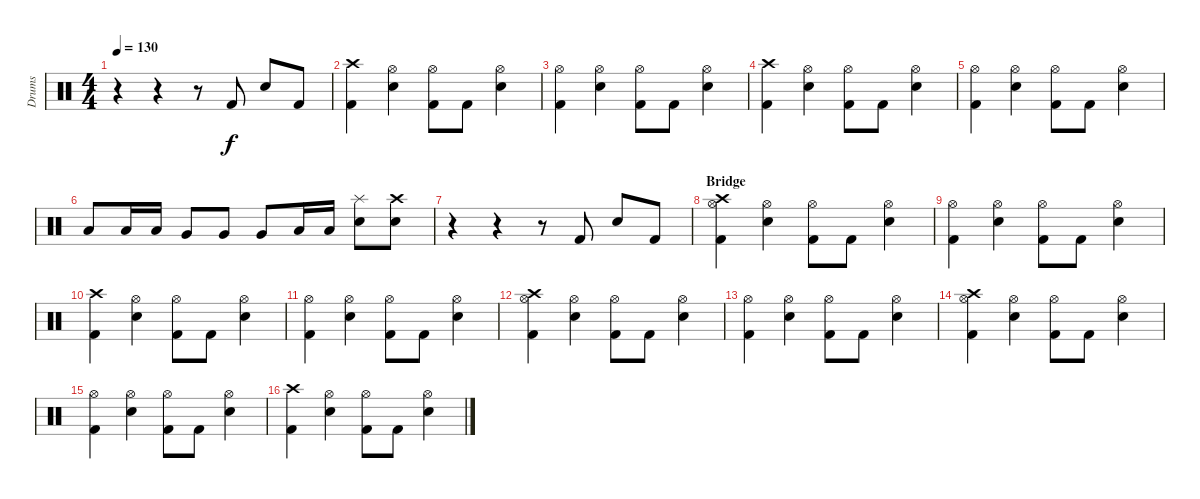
\track ("Drums" "Drums") {instrument percussion}
\staff {score}
\articulation defaults
\ts (4 4)
\tempo 130
\clef neutral
\ks c
r.4{dy f} r.4 r.8 "Kick (hit) 2".8 "Snare (hit) 2".8 "Kick (hit) 2".8 |
("Kick (hit) 2" "Crash high (hit)").4 ("Snare (hit) 2" "Hi-Hat (open)").4 ("Kick (hit) 2" "Hi-Hat (open)").8 "Kick (hit) 2".8 ("Snare (hit) 2" "Hi-Hat (open)").4 |
("Kick (hit) 2" "Hi-Hat (open)").4 ("Snare (hit) 2" "Hi-Hat (open)").4 ("Kick (hit) 2" "Hi-Hat (open)").8 "Kick (hit) 2".8 ("Snare (hit) 2" "Hi-Hat (open)").4 |
("Kick (hit) 2" "Crash high (hit)").4 ("Snare (hit) 2" "Hi-Hat (open)").4 ("Kick (hit) 2" "Hi-Hat (open)").8 "Kick (hit) 2".8 ("Snare (hit) 2" "Hi-Hat (open)").4 |
("Kick (hit) 2" "Hi-Hat (open)").4 ("Snare (hit) 2" "Hi-Hat (open)").4 ("Kick (hit) 2" "Hi-Hat (open)").8 "Kick (hit) 2".8 ("Snare (hit) 2" "Hi-Hat (open)").4 |
"Low Tom (hit)".8 "Low Tom (hit)".16 "Low Tom (hit)".16 "Very Low Tom (hit)".8 "Very Low Tom (hit)".8 "Very Low Tom (hit)".8 "Low Floor Tom (hit)".16 "Low Floor Tom (hit)".16 ("Splash (hit)" "Snare (hit) 2").8 ("Crash high (hit)" "Snare (hit) 2").8 |
r.4 r.4 r.8 "Kick (hit) 2".8 "Snare (hit) 2".8 "Kick (hit) 2".8 |
\section ("" "Bridge")
("Kick (hit) 2" "Hi-Hat (open)" "Crash high (hit)").4 ("Snare (hit) 2" "Hi-Hat (open)").4 ("Kick (hit) 2" "Hi-Hat (open)").8 "Kick (hit) 2".8 ("Snare (hit) 2" "Hi-Hat (open)").4 |
("Kick (hit) 2" "Hi-Hat (open)").4 ("Snare (hit) 2" "Hi-Hat (open)").4 ("Kick (hit) 2" "Hi-Hat (open)").8 "Kick (hit) 2".8 ("Snare (hit) 2" "Hi-Hat (open)").4 |
("Kick (hit) 2" "Crash high (hit)").4 ("Snare (hit) 2" "Hi-Hat (open)").4 ("Kick (hit) 2" "Hi-Hat (open)").8 "Kick (hit) 2".8 ("Snare (hit) 2" "Hi-Hat (open)").4 |
("Kick (hit) 2" "Hi-Hat (open)").4 ("Snare (hit) 2" "Hi-Hat (open)").4 ("Kick (hit) 2" "Hi-Hat (open)").8 "Kick (hit) 2".8 ("Snare (hit) 2" "Hi-Hat (open)").4 |
("Kick (hit) 2" "Hi-Hat (open)" "Crash high (hit)").4 ("Snare (hit) 2" "Hi-Hat (open)").4 ("Kick (hit) 2" "Hi-Hat (open)").8 "Kick (hit) 2".8 ("Snare (hit) 2" "Hi-Hat (open)").4 |
("Kick (hit) 2" "Hi-Hat (open)").4 ("Snare (hit) 2" "Hi-Hat (open)").4 ("Kick (hit) 2" "Hi-Hat (open)").8 "Kick (hit) 2".8 ("Snare (hit) 2" "Hi-Hat (open)").4 |
("Kick (hit) 2" "Hi-Hat (open)" "Crash high (hit)").4 ("Snare (hit) 2" "Hi-Hat (open)").4 ("Kick (hit) 2" "Hi-Hat (open)").8 "Kick (hit) 2".8 ("Snare (hit) 2" "Hi-Hat (open)").4 |
("Kick (hit) 2" "Hi-Hat (open)").4 ("Snare (hit) 2" "Hi-Hat (open)").4 ("Kick (hit) 2" "Hi-Hat (open)").8 "Kick (hit) 2".8 ("Snare (hit) 2" "Hi-Hat (open)").4 |
("Kick (hit) 2" "Crash high (hit)").4 ("Snare (hit) 2" "Hi-Hat (open)").4 ("Kick (hit) 2" "Hi-Hat (open)").8 "Kick (hit) 2".8 ("Snare (hit) 2" "Hi-Hat (open)").4
